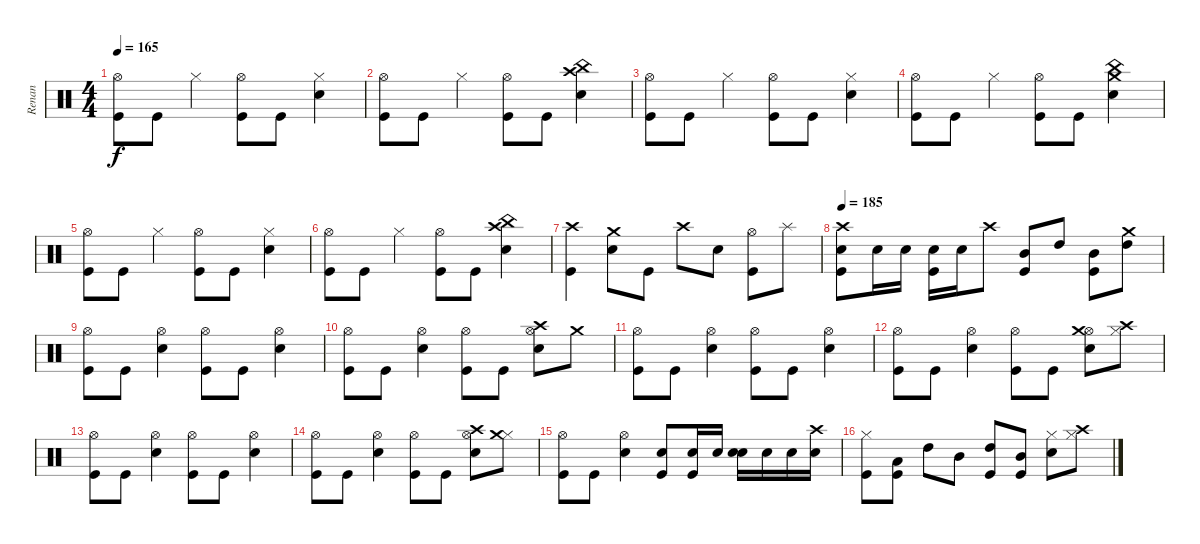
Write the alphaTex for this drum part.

\track ("Renan" "Renan") {instrument percussion}
\staff {score}
\articulation defaults
\ts (4 4)
\tempo 165
\clef neutral
\ks c
("Hi-Hat (open)" "Kick (hit)").8{dy f} "Kick (hit)".8 "Hi-Hat (closed)".4 ("Hi-Hat (open)" "Kick (hit)").8 "Kick (hit)".8 ("Hi-Hat (closed)" "Snare (hit) 2").4 |
("Hi-Hat (open)" "Kick (hit)").8 "Kick (hit)".8 "Hi-Hat (closed)".4 ("Hi-Hat (open)" "Kick (hit)").8 "Kick (hit)".8 ("China (hit)" "Crash high (hit)" "Snare (hit) 2").4 |
("Hi-Hat (open)" "Kick (hit)").8 "Kick (hit)".8 "Hi-Hat (closed)".4 ("Hi-Hat (open)" "Kick (hit)").8 "Kick (hit)".8 ("Hi-Hat (closed)" "Snare (hit) 2").4 |
("Hi-Hat (open)" "Kick (hit)").8 "Kick (hit)".8 "Hi-Hat (closed)".4 ("Hi-Hat (open)" "Kick (hit)").8 "Kick (hit)".8 ("China (hit)" "Crash medium (hit)" "Snare (hit) 2").4 |
("Hi-Hat (open)" "Kick (hit)").8 "Kick (hit)".8 "Hi-Hat (closed)".4 ("Hi-Hat (open)" "Kick (hit)").8 "Kick (hit)".8 ("Hi-Hat (closed)" "Snare (hit) 2").4 |
("Hi-Hat (open)" "Kick (hit)").8 "Kick (hit)".8 "Hi-Hat (closed)".4 ("Hi-Hat (open)" "Kick (hit)").8 "Kick (hit)".8 ("China (hit)" "Crash high (hit)" "Snare (hit) 2").4 |
("Crash high (hit)" "Kick (hit)").4 ("Crash medium (hit)" "Snare (hit) 2").8 "Kick (hit)".8 "Crash high (hit)".8 "Snare (hit) 2".8 ("Hi-Hat (open)" "Kick (hit)").8 "Splash (hit)".8 |
\tempo 185
("Crash high (hit)" "Snare (hit) 2" "Kick (hit)").8 "Electric Snare (hit)".16 "Electric Snare (hit)".16 ("Electric Snare (hit)" "Kick (hit)").16 "Electric Snare (hit)".16 "Crash high (hit)".8 ("Mid Tom (hit)" "Kick (hit)").8 "High Tom (hit)".8 ("Mid Tom (hit)" "Kick (hit)").8 ("Crash medium (hit)" "High Tom (hit)").8 |
("Hi-Hat (open)" "Kick (hit)").8 "Kick (hit)".8 ("Hi-Hat (open)" "Snare (hit) 2").4 ("Hi-Hat (open)" "Kick (hit)").8 "Kick (hit)".8 ("Hi-Hat (open)" "Snare (hit) 2").4 |
("Hi-Hat (open)" "Kick (hit)").8 "Kick (hit)".8 ("Hi-Hat (open)" "Snare (hit) 2").4 ("Hi-Hat (open)" "Kick (hit)").8 "Kick (hit)".8 ("Hi-Hat (open)" "Crash high (hit)" "Snare (hit) 2").8 "Crash medium (hit)".8 |
("Hi-Hat (open)" "Kick (hit)").8 "Kick (hit)".8 ("Hi-Hat (open)" "Snare (hit) 2").4 ("Hi-Hat (open)" "Kick (hit)").8 "Kick (hit)".8 ("Hi-Hat (open)" "Snare (hit) 2").4 |
("Hi-Hat (open)" "Kick (hit)").8 "Kick (hit)".8 ("Hi-Hat (open)" "Snare (hit) 2").4 ("Hi-Hat (open)" "Kick (hit)").8 "Kick (hit)".8 ("Hi-Hat (open)" "Crash medium (hit)" "Snare (hit) 2").8 ("Hi-Hat (closed)" "Crash high (hit)").8 |
("Hi-Hat (open)" "Kick (hit)").8 "Kick (hit)".8 ("Hi-Hat (open)" "Snare (hit) 2").4 ("Hi-Hat (open)" "Kick (hit)").8 "Kick (hit)".8 ("Hi-Hat (open)" "Snare (hit) 2").4 |
("Hi-Hat (open)" "Kick (hit)").8 "Kick (hit)".8 ("Hi-Hat (open)" "Snare (hit) 2").4 ("Hi-Hat (open)" "Kick (hit)").8 "Kick (hit)".8 ("Hi-Hat (open)" "Crash high (hit)" "Snare (hit) 2").8 ("Hi-Hat (closed)" "Crash medium (hit)").8 |
("Hi-Hat (open)" "Kick (hit)").8 "Kick (hit)".8 ("Hi-Hat (open)" "Snare (hit) 2").4 ("Electric Snare (hit)" "Kick (hit)").8 ("Electric Snare (hit)" "Kick (hit)").16 "Electric Snare (hit)".16 ("Electric Snare (hit)" "Snare (hit) 2").16 "Electric Snare (hit)".16 "Electric Snare (hit)".16 ("Crash high (hit)" "Electric Snare (hit)").16 |
("Hi-Hat (closed)" "Kick (hit)").8 ("Low Floor Tom (hit)" "Kick (hit)").8 "High Tom (hit)".8 "Mid Tom (hit)".8 ("High Tom (hit)" "Kick (hit)").8 ("Mid Tom (hit)" "Kick (hit)").8 ("Hi-Hat (closed)" "Snare (hit) 2").8 ("Hi-Hat (closed)" "Crash high (hit)").8
